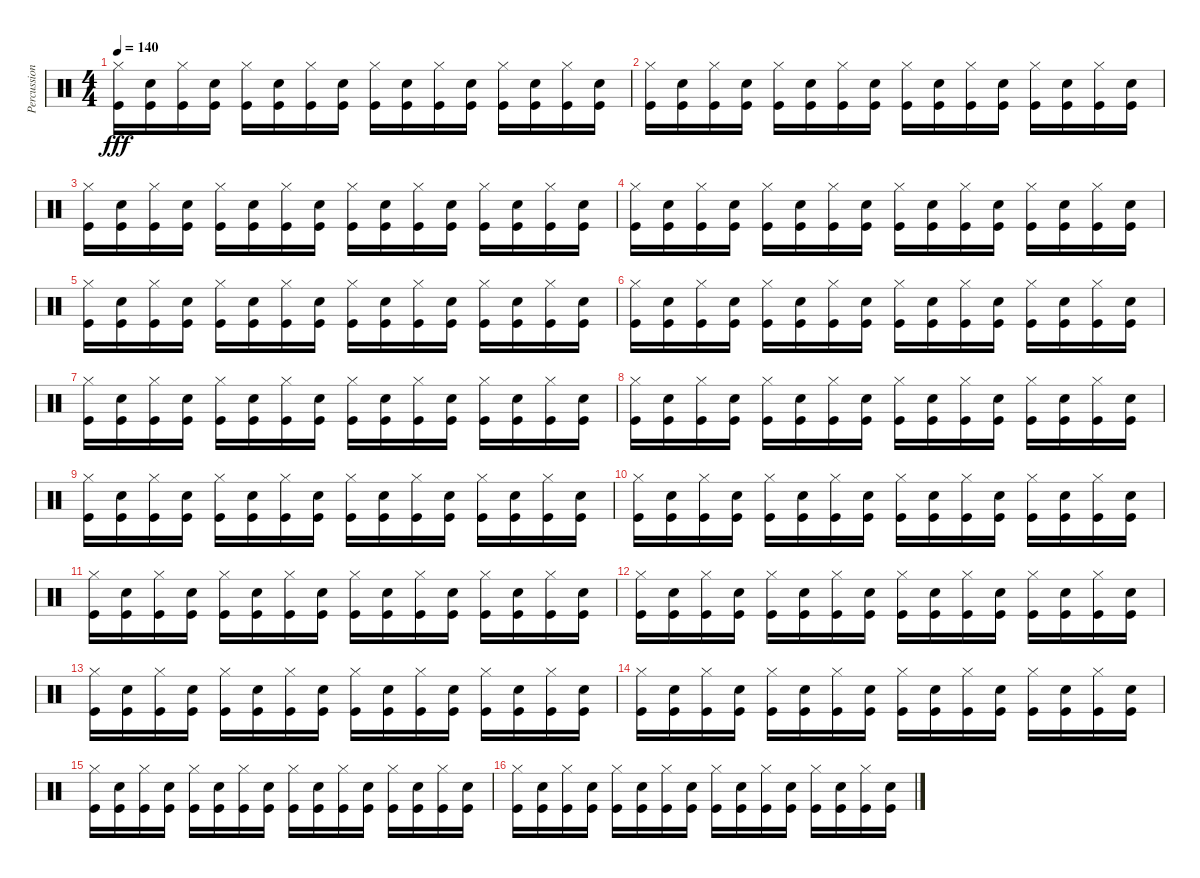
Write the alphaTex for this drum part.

\track ("Percussion" "Percussion") {instrument percussion}
\staff {score}
\articulation defaults
\ts (4 4)
\tempo 140
\clef neutral
\ks c
("Hi-Hat (closed)" "Kick (hit)").16{dy fff} ("Snare (hit) 2" "Kick (hit)").16 ("Hi-Hat (closed)" "Kick (hit)").16 ("Snare (hit) 2" "Kick (hit)").16 ("Hi-Hat (closed)" "Kick (hit)").16 ("Snare (hit) 2" "Kick (hit)").16 ("Hi-Hat (closed)" "Kick (hit)").16 ("Snare (hit) 2" "Kick (hit)").16 ("Hi-Hat (closed)" "Kick (hit)").16 ("Snare (hit) 2" "Kick (hit)").16 ("Hi-Hat (closed)" "Kick (hit)").16 ("Snare (hit) 2" "Kick (hit)").16 ("Hi-Hat (closed)" "Kick (hit)").16 ("Snare (hit) 2" "Kick (hit)").16 ("Hi-Hat (closed)" "Kick (hit)").16 ("Snare (hit) 2" "Kick (hit)").16 |
("Hi-Hat (closed)" "Kick (hit)").16 ("Snare (hit) 2" "Kick (hit)").16 ("Hi-Hat (closed)" "Kick (hit)").16 ("Snare (hit) 2" "Kick (hit)").16 ("Hi-Hat (closed)" "Kick (hit)").16 ("Snare (hit) 2" "Kick (hit)").16 ("Hi-Hat (closed)" "Kick (hit)").16 ("Snare (hit) 2" "Kick (hit)").16 ("Hi-Hat (closed)" "Kick (hit)").16 ("Snare (hit) 2" "Kick (hit)").16 ("Hi-Hat (closed)" "Kick (hit)").16 ("Snare (hit) 2" "Kick (hit)").16 ("Hi-Hat (closed)" "Kick (hit)").16 ("Snare (hit) 2" "Kick (hit)").16 ("Hi-Hat (closed)" "Kick (hit)").16 ("Snare (hit) 2" "Kick (hit)").16 |
("Hi-Hat (closed)" "Kick (hit)").16 ("Snare (hit) 2" "Kick (hit)").16 ("Hi-Hat (closed)" "Kick (hit)").16 ("Snare (hit) 2" "Kick (hit)").16 ("Hi-Hat (closed)" "Kick (hit)").16 ("Snare (hit) 2" "Kick (hit)").16 ("Hi-Hat (closed)" "Kick (hit)").16 ("Snare (hit) 2" "Kick (hit)").16 ("Hi-Hat (closed)" "Kick (hit)").16 ("Snare (hit) 2" "Kick (hit)").16 ("Hi-Hat (closed)" "Kick (hit)").16 ("Snare (hit) 2" "Kick (hit)").16 ("Hi-Hat (closed)" "Kick (hit)").16 ("Snare (hit) 2" "Kick (hit)").16 ("Hi-Hat (closed)" "Kick (hit)").16 ("Snare (hit) 2" "Kick (hit)").16 |
("Hi-Hat (closed)" "Kick (hit)").16 ("Snare (hit) 2" "Kick (hit)").16 ("Hi-Hat (closed)" "Kick (hit)").16 ("Snare (hit) 2" "Kick (hit)").16 ("Hi-Hat (closed)" "Kick (hit)").16 ("Snare (hit) 2" "Kick (hit)").16 ("Hi-Hat (closed)" "Kick (hit)").16 ("Snare (hit) 2" "Kick (hit)").16 ("Hi-Hat (closed)" "Kick (hit)").16 ("Snare (hit) 2" "Kick (hit)").16 ("Hi-Hat (closed)" "Kick (hit)").16 ("Snare (hit) 2" "Kick (hit)").16 ("Hi-Hat (closed)" "Kick (hit)").16 ("Snare (hit) 2" "Kick (hit)").16 ("Hi-Hat (closed)" "Kick (hit)").16 ("Snare (hit) 2" "Kick (hit)").16 |
("Hi-Hat (closed)" "Kick (hit)").16 ("Snare (hit) 2" "Kick (hit)").16 ("Hi-Hat (closed)" "Kick (hit)").16 ("Snare (hit) 2" "Kick (hit)").16 ("Hi-Hat (closed)" "Kick (hit)").16 ("Snare (hit) 2" "Kick (hit)").16 ("Hi-Hat (closed)" "Kick (hit)").16 ("Snare (hit) 2" "Kick (hit)").16 ("Hi-Hat (closed)" "Kick (hit)").16 ("Snare (hit) 2" "Kick (hit)").16 ("Hi-Hat (closed)" "Kick (hit)").16 ("Snare (hit) 2" "Kick (hit)").16 ("Hi-Hat (closed)" "Kick (hit)").16 ("Snare (hit) 2" "Kick (hit)").16 ("Hi-Hat (closed)" "Kick (hit)").16 ("Snare (hit) 2" "Kick (hit)").16 |
("Hi-Hat (closed)" "Kick (hit)").16 ("Snare (hit) 2" "Kick (hit)").16 ("Hi-Hat (closed)" "Kick (hit)").16 ("Snare (hit) 2" "Kick (hit)").16 ("Hi-Hat (closed)" "Kick (hit)").16 ("Snare (hit) 2" "Kick (hit)").16 ("Hi-Hat (closed)" "Kick (hit)").16 ("Snare (hit) 2" "Kick (hit)").16 ("Hi-Hat (closed)" "Kick (hit)").16 ("Snare (hit) 2" "Kick (hit)").16 ("Hi-Hat (closed)" "Kick (hit)").16 ("Snare (hit) 2" "Kick (hit)").16 ("Hi-Hat (closed)" "Kick (hit)").16 ("Snare (hit) 2" "Kick (hit)").16 ("Hi-Hat (closed)" "Kick (hit)").16 ("Snare (hit) 2" "Kick (hit)").16 |
("Hi-Hat (closed)" "Kick (hit)").16 ("Snare (hit) 2" "Kick (hit)").16 ("Hi-Hat (closed)" "Kick (hit)").16 ("Snare (hit) 2" "Kick (hit)").16 ("Hi-Hat (closed)" "Kick (hit)").16 ("Snare (hit) 2" "Kick (hit)").16 ("Hi-Hat (closed)" "Kick (hit)").16 ("Snare (hit) 2" "Kick (hit)").16 ("Hi-Hat (closed)" "Kick (hit)").16 ("Snare (hit) 2" "Kick (hit)").16 ("Hi-Hat (closed)" "Kick (hit)").16 ("Snare (hit) 2" "Kick (hit)").16 ("Hi-Hat (closed)" "Kick (hit)").16 ("Snare (hit) 2" "Kick (hit)").16 ("Hi-Hat (closed)" "Kick (hit)").16 ("Snare (hit) 2" "Kick (hit)").16 |
("Hi-Hat (closed)" "Kick (hit)").16 ("Snare (hit) 2" "Kick (hit)").16 ("Hi-Hat (closed)" "Kick (hit)").16 ("Snare (hit) 2" "Kick (hit)").16 ("Hi-Hat (closed)" "Kick (hit)").16 ("Snare (hit) 2" "Kick (hit)").16 ("Hi-Hat (closed)" "Kick (hit)").16 ("Snare (hit) 2" "Kick (hit)").16 ("Hi-Hat (closed)" "Kick (hit)").16 ("Snare (hit) 2" "Kick (hit)").16 ("Hi-Hat (closed)" "Kick (hit)").16 ("Snare (hit) 2" "Kick (hit)").16 ("Hi-Hat (closed)" "Kick (hit)").16 ("Snare (hit) 2" "Kick (hit)").16 ("Hi-Hat (closed)" "Kick (hit)").16 ("Snare (hit) 2" "Kick (hit)").16 |
("Hi-Hat (closed)" "Kick (hit)").16 ("Snare (hit) 2" "Kick (hit)").16 ("Hi-Hat (closed)" "Kick (hit)").16 ("Snare (hit) 2" "Kick (hit)").16 ("Hi-Hat (closed)" "Kick (hit)").16 ("Snare (hit) 2" "Kick (hit)").16 ("Hi-Hat (closed)" "Kick (hit)").16 ("Snare (hit) 2" "Kick (hit)").16 ("Hi-Hat (closed)" "Kick (hit)").16 ("Snare (hit) 2" "Kick (hit)").16 ("Hi-Hat (closed)" "Kick (hit)").16 ("Snare (hit) 2" "Kick (hit)").16 ("Hi-Hat (closed)" "Kick (hit)").16 ("Snare (hit) 2" "Kick (hit)").16 ("Hi-Hat (closed)" "Kick (hit)").16 ("Snare (hit) 2" "Kick (hit)").16 |
("Hi-Hat (closed)" "Kick (hit)").16 ("Snare (hit) 2" "Kick (hit)").16 ("Hi-Hat (closed)" "Kick (hit)").16 ("Snare (hit) 2" "Kick (hit)").16 ("Hi-Hat (closed)" "Kick (hit)").16 ("Snare (hit) 2" "Kick (hit)").16 ("Hi-Hat (closed)" "Kick (hit)").16 ("Snare (hit) 2" "Kick (hit)").16 ("Hi-Hat (closed)" "Kick (hit)").16 ("Snare (hit) 2" "Kick (hit)").16 ("Hi-Hat (closed)" "Kick (hit)").16 ("Snare (hit) 2" "Kick (hit)").16 ("Hi-Hat (closed)" "Kick (hit)").16 ("Snare (hit) 2" "Kick (hit)").16 ("Hi-Hat (closed)" "Kick (hit)").16 ("Snare (hit) 2" "Kick (hit)").16 |
("Hi-Hat (closed)" "Kick (hit)").16 ("Snare (hit) 2" "Kick (hit)").16 ("Hi-Hat (closed)" "Kick (hit)").16 ("Snare (hit) 2" "Kick (hit)").16 ("Hi-Hat (closed)" "Kick (hit)").16 ("Snare (hit) 2" "Kick (hit)").16 ("Hi-Hat (closed)" "Kick (hit)").16 ("Snare (hit) 2" "Kick (hit)").16 ("Hi-Hat (closed)" "Kick (hit)").16 ("Snare (hit) 2" "Kick (hit)").16 ("Hi-Hat (closed)" "Kick (hit)").16 ("Snare (hit) 2" "Kick (hit)").16 ("Hi-Hat (closed)" "Kick (hit)").16 ("Snare (hit) 2" "Kick (hit)").16 ("Hi-Hat (closed)" "Kick (hit)").16 ("Snare (hit) 2" "Kick (hit)").16 |
("Hi-Hat (closed)" "Kick (hit)").16 ("Snare (hit) 2" "Kick (hit)").16 ("Hi-Hat (closed)" "Kick (hit)").16 ("Snare (hit) 2" "Kick (hit)").16 ("Hi-Hat (closed)" "Kick (hit)").16 ("Snare (hit) 2" "Kick (hit)").16 ("Hi-Hat (closed)" "Kick (hit)").16 ("Snare (hit) 2" "Kick (hit)").16 ("Hi-Hat (closed)" "Kick (hit)").16 ("Snare (hit) 2" "Kick (hit)").16 ("Hi-Hat (closed)" "Kick (hit)").16 ("Snare (hit) 2" "Kick (hit)").16 ("Hi-Hat (closed)" "Kick (hit)").16 ("Snare (hit) 2" "Kick (hit)").16 ("Hi-Hat (closed)" "Kick (hit)").16 ("Snare (hit) 2" "Kick (hit)").16 |
("Hi-Hat (closed)" "Kick (hit)").16 ("Snare (hit) 2" "Kick (hit)").16 ("Hi-Hat (closed)" "Kick (hit)").16 ("Snare (hit) 2" "Kick (hit)").16 ("Hi-Hat (closed)" "Kick (hit)").16 ("Snare (hit) 2" "Kick (hit)").16 ("Hi-Hat (closed)" "Kick (hit)").16 ("Snare (hit) 2" "Kick (hit)").16 ("Hi-Hat (closed)" "Kick (hit)").16 ("Snare (hit) 2" "Kick (hit)").16 ("Hi-Hat (closed)" "Kick (hit)").16 ("Snare (hit) 2" "Kick (hit)").16 ("Hi-Hat (closed)" "Kick (hit)").16 ("Snare (hit) 2" "Kick (hit)").16 ("Hi-Hat (closed)" "Kick (hit)").16 ("Snare (hit) 2" "Kick (hit)").16 |
("Hi-Hat (closed)" "Kick (hit)").16 ("Snare (hit) 2" "Kick (hit)").16 ("Hi-Hat (closed)" "Kick (hit)").16 ("Snare (hit) 2" "Kick (hit)").16 ("Hi-Hat (closed)" "Kick (hit)").16 ("Snare (hit) 2" "Kick (hit)").16 ("Hi-Hat (closed)" "Kick (hit)").16 ("Snare (hit) 2" "Kick (hit)").16 ("Hi-Hat (closed)" "Kick (hit)").16 ("Snare (hit) 2" "Kick (hit)").16 ("Hi-Hat (closed)" "Kick (hit)").16 ("Snare (hit) 2" "Kick (hit)").16 ("Hi-Hat (closed)" "Kick (hit)").16 ("Snare (hit) 2" "Kick (hit)").16 ("Hi-Hat (closed)" "Kick (hit)").16 ("Snare (hit) 2" "Kick (hit)").16 |
("Hi-Hat (closed)" "Kick (hit)").16 ("Snare (hit) 2" "Kick (hit)").16 ("Hi-Hat (closed)" "Kick (hit)").16 ("Snare (hit) 2" "Kick (hit)").16 ("Hi-Hat (closed)" "Kick (hit)").16 ("Snare (hit) 2" "Kick (hit)").16 ("Hi-Hat (closed)" "Kick (hit)").16 ("Snare (hit) 2" "Kick (hit)").16 ("Hi-Hat (closed)" "Kick (hit)").16 ("Snare (hit) 2" "Kick (hit)").16 ("Hi-Hat (closed)" "Kick (hit)").16 ("Snare (hit) 2" "Kick (hit)").16 ("Hi-Hat (closed)" "Kick (hit)").16 ("Snare (hit) 2" "Kick (hit)").16 ("Hi-Hat (closed)" "Kick (hit)").16 ("Snare (hit) 2" "Kick (hit)").16 |
("Hi-Hat (closed)" "Kick (hit)").16 ("Snare (hit) 2" "Kick (hit)").16 ("Hi-Hat (closed)" "Kick (hit)").16 ("Snare (hit) 2" "Kick (hit)").16 ("Hi-Hat (closed)" "Kick (hit)").16 ("Snare (hit) 2" "Kick (hit)").16 ("Hi-Hat (closed)" "Kick (hit)").16 ("Snare (hit) 2" "Kick (hit)").16 ("Hi-Hat (closed)" "Kick (hit)").16 ("Snare (hit) 2" "Kick (hit)").16 ("Hi-Hat (closed)" "Kick (hit)").16 ("Snare (hit) 2" "Kick (hit)").16 ("Hi-Hat (closed)" "Kick (hit)").16 ("Snare (hit) 2" "Kick (hit)").16 ("Hi-Hat (closed)" "Kick (hit)").16 ("Snare (hit) 2" "Kick (hit)").16
